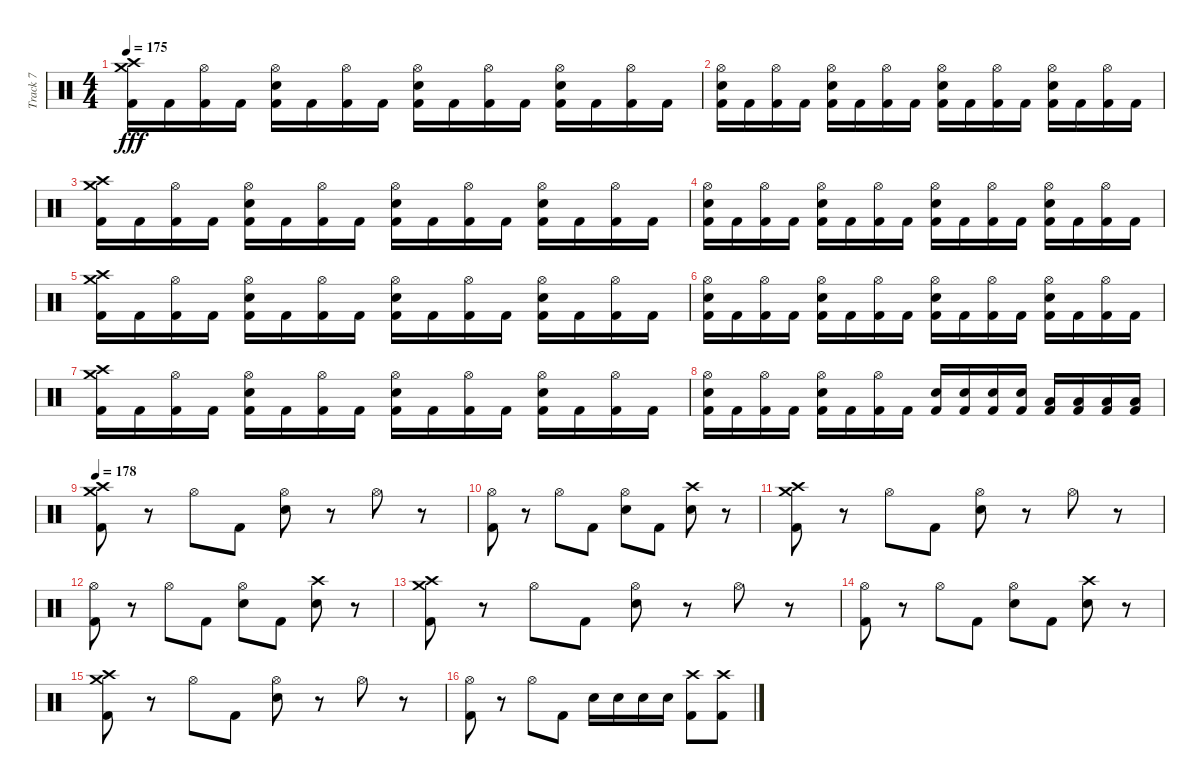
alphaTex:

\track ("Track 7" "Track 7") {instrument percussion}
\staff {score}
\articulation defaults
\ts (4 4)
\tempo 175
\clef neutral
\ks c
("Kick (hit) 2" "Crash medium (hit)" "Crash high (hit)").16{dy fff} "Kick (hit) 2".16 ("Kick (hit) 2" "Hi-Hat (open)").16 "Kick (hit) 2".16 ("Kick (hit) 2" "Electric Snare (hit)" "Hi-Hat (open)").16 "Kick (hit) 2".16 ("Kick (hit) 2" "Hi-Hat (open)").16 "Kick (hit) 2".16 ("Kick (hit) 2" "Electric Snare (hit)" "Hi-Hat (open)").16 "Kick (hit) 2".16 ("Kick (hit) 2" "Hi-Hat (open)").16 "Kick (hit) 2".16 ("Kick (hit) 2" "Electric Snare (hit)" "Hi-Hat (open)").16 "Kick (hit) 2".16 ("Kick (hit) 2" "Hi-Hat (open)").16 "Kick (hit) 2".16 |
("Kick (hit) 2" "Electric Snare (hit)" "Hi-Hat (open)").16 "Kick (hit) 2".16 ("Kick (hit) 2" "Hi-Hat (open)").16 "Kick (hit) 2".16 ("Kick (hit) 2" "Electric Snare (hit)" "Hi-Hat (open)").16 "Kick (hit) 2".16 ("Kick (hit) 2" "Hi-Hat (open)").16 "Kick (hit) 2".16 ("Kick (hit) 2" "Electric Snare (hit)" "Hi-Hat (open)").16 "Kick (hit) 2".16 ("Kick (hit) 2" "Hi-Hat (open)").16 "Kick (hit) 2".16 ("Kick (hit) 2" "Electric Snare (hit)" "Hi-Hat (open)").16 "Kick (hit) 2".16 ("Kick (hit) 2" "Hi-Hat (open)").16 "Kick (hit) 2".16 |
("Kick (hit) 2" "Crash medium (hit)" "Crash high (hit)").16 "Kick (hit) 2".16 ("Kick (hit) 2" "Hi-Hat (open)").16 "Kick (hit) 2".16 ("Kick (hit) 2" "Electric Snare (hit)" "Hi-Hat (open)").16 "Kick (hit) 2".16 ("Kick (hit) 2" "Hi-Hat (open)").16 "Kick (hit) 2".16 ("Kick (hit) 2" "Electric Snare (hit)" "Hi-Hat (open)").16 "Kick (hit) 2".16 ("Kick (hit) 2" "Hi-Hat (open)").16 "Kick (hit) 2".16 ("Kick (hit) 2" "Electric Snare (hit)" "Hi-Hat (open)").16 "Kick (hit) 2".16 ("Kick (hit) 2" "Hi-Hat (open)").16 "Kick (hit) 2".16 |
("Kick (hit) 2" "Electric Snare (hit)" "Hi-Hat (open)").16 "Kick (hit) 2".16 ("Kick (hit) 2" "Hi-Hat (open)").16 "Kick (hit) 2".16 ("Kick (hit) 2" "Electric Snare (hit)" "Hi-Hat (open)").16 "Kick (hit) 2".16 ("Kick (hit) 2" "Hi-Hat (open)").16 "Kick (hit) 2".16 ("Kick (hit) 2" "Electric Snare (hit)" "Hi-Hat (open)").16 "Kick (hit) 2".16 ("Kick (hit) 2" "Hi-Hat (open)").16 "Kick (hit) 2".16 ("Kick (hit) 2" "Electric Snare (hit)" "Hi-Hat (open)").16 "Kick (hit) 2".16 ("Kick (hit) 2" "Hi-Hat (open)").16 "Kick (hit) 2".16 |
("Kick (hit) 2" "Crash medium (hit)" "Crash high (hit)").16 "Kick (hit) 2".16 ("Kick (hit) 2" "Hi-Hat (open)").16 "Kick (hit) 2".16 ("Kick (hit) 2" "Electric Snare (hit)" "Hi-Hat (open)").16 "Kick (hit) 2".16 ("Kick (hit) 2" "Hi-Hat (open)").16 "Kick (hit) 2".16 ("Kick (hit) 2" "Electric Snare (hit)" "Hi-Hat (open)").16 "Kick (hit) 2".16 ("Kick (hit) 2" "Hi-Hat (open)").16 "Kick (hit) 2".16 ("Kick (hit) 2" "Electric Snare (hit)" "Hi-Hat (open)").16 "Kick (hit) 2".16 ("Kick (hit) 2" "Hi-Hat (open)").16 "Kick (hit) 2".16 |
("Kick (hit) 2" "Electric Snare (hit)" "Hi-Hat (open)").16 "Kick (hit) 2".16 ("Kick (hit) 2" "Hi-Hat (open)").16 "Kick (hit) 2".16 ("Kick (hit) 2" "Electric Snare (hit)" "Hi-Hat (open)").16 "Kick (hit) 2".16 ("Kick (hit) 2" "Hi-Hat (open)").16 "Kick (hit) 2".16 ("Kick (hit) 2" "Electric Snare (hit)" "Hi-Hat (open)").16 "Kick (hit) 2".16 ("Kick (hit) 2" "Hi-Hat (open)").16 "Kick (hit) 2".16 ("Kick (hit) 2" "Electric Snare (hit)" "Hi-Hat (open)").16 "Kick (hit) 2".16 ("Kick (hit) 2" "Hi-Hat (open)").16 "Kick (hit) 2".16 |
("Kick (hit) 2" "Crash medium (hit)" "Crash high (hit)").16 "Kick (hit) 2".16 ("Kick (hit) 2" "Hi-Hat (open)").16 "Kick (hit) 2".16 ("Kick (hit) 2" "Electric Snare (hit)" "Hi-Hat (open)").16 "Kick (hit) 2".16 ("Kick (hit) 2" "Hi-Hat (open)").16 "Kick (hit) 2".16 ("Kick (hit) 2" "Electric Snare (hit)" "Hi-Hat (open)").16 "Kick (hit) 2".16 ("Kick (hit) 2" "Hi-Hat (open)").16 "Kick (hit) 2".16 ("Kick (hit) 2" "Electric Snare (hit)" "Hi-Hat (open)").16 "Kick (hit) 2".16 ("Kick (hit) 2" "Hi-Hat (open)").16 "Kick (hit) 2".16 |
("Kick (hit) 2" "Electric Snare (hit)" "Hi-Hat (open)").16 "Kick (hit) 2".16 ("Kick (hit) 2" "Hi-Hat (open)").16 "Kick (hit) 2".16 ("Kick (hit) 2" "Electric Snare (hit)" "Hi-Hat (open)").16 "Kick (hit) 2".16 ("Kick (hit) 2" "Hi-Hat (open)").16 "Kick (hit) 2".16 ("Kick (hit) 2" "Electric Snare (hit)").16 ("Kick (hit) 2" "Electric Snare (hit)").16 ("Kick (hit) 2" "Electric Snare (hit)").16 ("Kick (hit) 2" "Electric Snare (hit)").16 ("Kick (hit) 2" "Low Tom (hit)").16 ("Kick (hit) 2" "Low Tom (hit)").16 ("Kick (hit) 2" "Low Tom (hit)").16 ("Kick (hit) 2" "Low Tom (hit)").16 |
\tempo 178
("Kick (hit) 2" "Crash medium (hit)" "Crash high (hit)").8 r.8 "Hi-Hat (open)".8 "Kick (hit) 2".8 ("Electric Snare (hit)" "Hi-Hat (open)").8 r.8 "Hi-Hat (open)".8 r.8 |
("Kick (hit) 2" "Hi-Hat (open)").8 r.8 "Hi-Hat (open)".8 "Kick (hit) 2".8 ("Electric Snare (hit)" "Hi-Hat (open)").8 "Kick (hit) 2".8 ("Electric Snare (hit)" "Crash high (hit)").8 r.8 |
("Kick (hit) 2" "Crash medium (hit)" "Crash high (hit)").8 r.8 "Hi-Hat (open)".8 "Kick (hit) 2".8 ("Electric Snare (hit)" "Hi-Hat (open)").8 r.8 "Hi-Hat (open)".8 r.8 |
("Kick (hit) 2" "Hi-Hat (open)").8 r.8 "Hi-Hat (open)".8 "Kick (hit) 2".8 ("Electric Snare (hit)" "Hi-Hat (open)").8 "Kick (hit) 2".8 ("Electric Snare (hit)" "Crash high (hit)").8 r.8 |
("Kick (hit) 2" "Crash medium (hit)" "Crash high (hit)").8 r.8 "Hi-Hat (open)".8 "Kick (hit) 2".8 ("Electric Snare (hit)" "Hi-Hat (open)").8 r.8 "Hi-Hat (open)".8 r.8 |
("Kick (hit) 2" "Hi-Hat (open)").8 r.8 "Hi-Hat (open)".8 "Kick (hit) 2".8 ("Electric Snare (hit)" "Hi-Hat (open)").8 "Kick (hit) 2".8 ("Electric Snare (hit)" "Crash high (hit)").8 r.8 |
("Kick (hit) 2" "Crash medium (hit)" "Crash high (hit)").8 r.8 "Hi-Hat (open)".8 "Kick (hit) 2".8 ("Electric Snare (hit)" "Hi-Hat (open)").8 r.8 "Hi-Hat (open)".8 r.8 |
("Kick (hit) 2" "Hi-Hat (open)").8 r.8 "Hi-Hat (open)".8 "Kick (hit) 2".8 "Electric Snare (hit)".16 "Electric Snare (hit)".16 "Electric Snare (hit)".16 "Electric Snare (hit)".16 ("Kick (hit) 2" "Crash high (hit)").8 ("Kick (hit) 2" "Crash high (hit)").8
